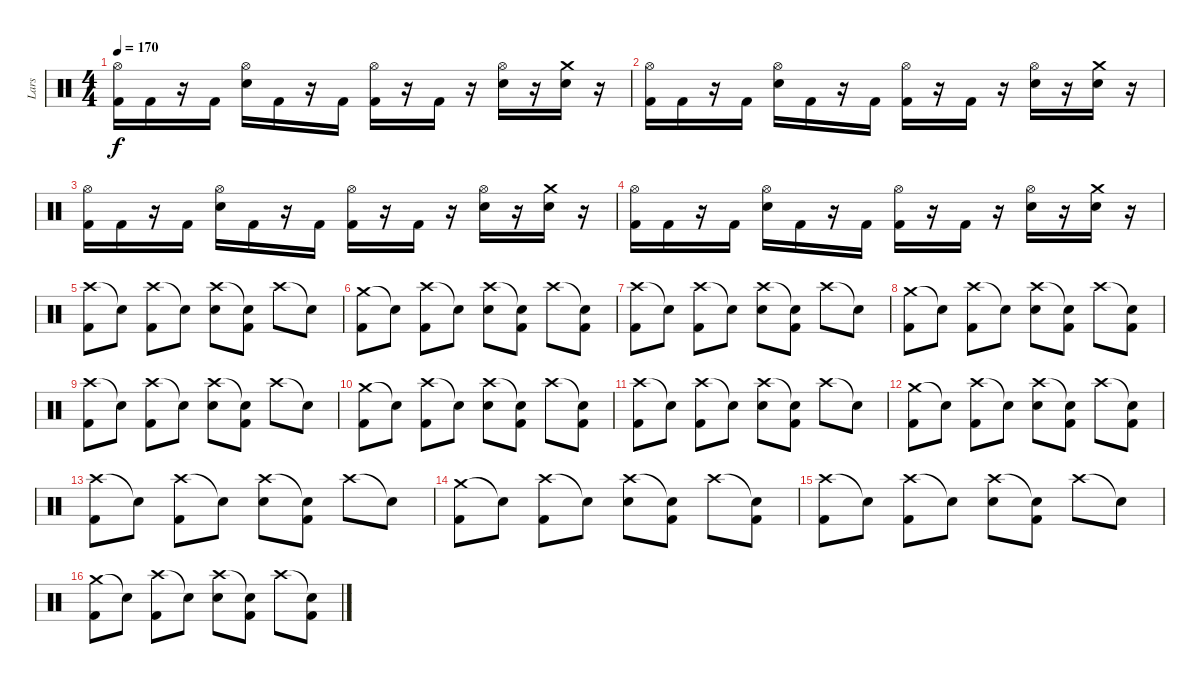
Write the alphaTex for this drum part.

\track ("Lars" "Lars") {instrument percussion}
\staff {score}
\articulation defaults
\ts (4 4)
\tempo 170
\clef neutral
\ks c
("Hi-Hat (open)" "Kick (hit) 2").16{dy f} "Kick (hit) 2".16 r.16 "Kick (hit) 2".16 ("Hi-Hat (open)" "Electric Snare (hit)").16 "Kick (hit) 2".16 r.16 "Kick (hit) 2".16 ("Hi-Hat (open)" "Kick (hit) 2").16 r.16 "Kick (hit) 2".16 r.16 ("Hi-Hat (open)" "Electric Snare (hit)").16 r.16 ("Crash medium (hit)" "Electric Snare (hit)").16 r.16 |
("Hi-Hat (open)" "Kick (hit) 2").16 "Kick (hit) 2".16 r.16 "Kick (hit) 2".16 ("Hi-Hat (open)" "Electric Snare (hit)").16 "Kick (hit) 2".16 r.16 "Kick (hit) 2".16 ("Hi-Hat (open)" "Kick (hit) 2").16 r.16 "Kick (hit) 2".16 r.16 ("Hi-Hat (open)" "Electric Snare (hit)").16 r.16 ("Crash medium (hit)" "Electric Snare (hit)").16 r.16 |
("Hi-Hat (open)" "Kick (hit) 2").16 "Kick (hit) 2".16 r.16 "Kick (hit) 2".16 ("Hi-Hat (open)" "Electric Snare (hit)").16 "Kick (hit) 2".16 r.16 "Kick (hit) 2".16 ("Hi-Hat (open)" "Kick (hit) 2").16 r.16 "Kick (hit) 2".16 r.16 ("Hi-Hat (open)" "Electric Snare (hit)").16 r.16 ("Crash medium (hit)" "Electric Snare (hit)").16 r.16 |
("Hi-Hat (open)" "Kick (hit) 2").16 "Kick (hit) 2".16 r.16 "Kick (hit) 2".16 ("Hi-Hat (open)" "Electric Snare (hit)").16 "Kick (hit) 2".16 r.16 "Kick (hit) 2".16 ("Hi-Hat (open)" "Kick (hit) 2").16 r.16 "Kick (hit) 2".16 r.16 ("Hi-Hat (open)" "Electric Snare (hit)").16 r.16 ("Crash medium (hit)" "Electric Snare (hit)").16 r.16 |
("Crash high (hit)" "Kick (hit) 2").8 "Snare (hit)"{t}.8 ("Crash high (hit)" "Kick (hit) 2").8 "Snare (hit)"{t}.8 ("Crash high (hit)" "Electric Snare (hit)").8 ("Snare (hit)"{t} "Kick (hit) 2").8 "Crash high (hit)".8 "Snare (hit)"{t}.8 |
("Crash medium (hit)" "Kick (hit) 2").8 "Snare (hit)"{t}.8 ("Crash high (hit)" "Kick (hit) 2").8 "Snare (hit)"{t}.8 ("Crash high (hit)" "Electric Snare (hit)").8 ("Snare (hit)"{t} "Kick (hit) 2").8 "Crash high (hit)".8 ("Snare (hit)"{t} "Kick (hit) 2").8 |
("Crash high (hit)" "Kick (hit) 2").8 "Snare (hit)"{t}.8 ("Crash high (hit)" "Kick (hit) 2").8 "Snare (hit)"{t}.8 ("Crash high (hit)" "Electric Snare (hit)").8 ("Snare (hit)"{t} "Kick (hit) 2").8 "Crash high (hit)".8 "Snare (hit)"{t}.8 |
("Crash medium (hit)" "Kick (hit) 2").8 "Snare (hit)"{t}.8 ("Crash high (hit)" "Kick (hit) 2").8 "Snare (hit)"{t}.8 ("Crash high (hit)" "Electric Snare (hit)").8 ("Snare (hit)"{t} "Kick (hit) 2").8 "Crash high (hit)".8 ("Snare (hit)"{t} "Kick (hit) 2").8 |
("Crash high (hit)" "Kick (hit) 2").8 "Snare (hit)"{t}.8 ("Crash high (hit)" "Kick (hit) 2").8 "Snare (hit)"{t}.8 ("Crash high (hit)" "Electric Snare (hit)").8 ("Snare (hit)"{t} "Kick (hit) 2").8 "Crash high (hit)".8 "Snare (hit)"{t}.8 |
("Crash medium (hit)" "Kick (hit) 2").8 "Snare (hit)"{t}.8 ("Crash high (hit)" "Kick (hit) 2").8 "Snare (hit)"{t}.8 ("Crash high (hit)" "Electric Snare (hit)").8 ("Snare (hit)"{t} "Kick (hit) 2").8 "Crash high (hit)".8 ("Snare (hit)"{t} "Kick (hit) 2").8 |
("Crash high (hit)" "Kick (hit) 2").8 "Snare (hit)"{t}.8 ("Crash high (hit)" "Kick (hit) 2").8 "Snare (hit)"{t}.8 ("Crash high (hit)" "Electric Snare (hit)").8 ("Snare (hit)"{t} "Kick (hit) 2").8 "Crash high (hit)".8 "Snare (hit)"{t}.8 |
("Crash medium (hit)" "Kick (hit) 2").8 "Snare (hit)"{t}.8 ("Crash high (hit)" "Kick (hit) 2").8 "Snare (hit)"{t}.8 ("Crash high (hit)" "Electric Snare (hit)").8 ("Snare (hit)"{t} "Kick (hit) 2").8 "Crash high (hit)".8 ("Snare (hit)"{t} "Kick (hit) 2").8 |
("Crash high (hit)" "Kick (hit) 2").8 "Snare (hit)"{t}.8 ("Crash high (hit)" "Kick (hit) 2").8 "Snare (hit)"{t}.8 ("Crash high (hit)" "Electric Snare (hit)").8 ("Snare (hit)"{t} "Kick (hit) 2").8 "Crash high (hit)".8 "Snare (hit)"{t}.8 |
("Crash medium (hit)" "Kick (hit) 2").8 "Snare (hit)"{t}.8 ("Crash high (hit)" "Kick (hit) 2").8 "Snare (hit)"{t}.8 ("Crash high (hit)" "Electric Snare (hit)").8 ("Snare (hit)"{t} "Kick (hit) 2").8 "Crash high (hit)".8 ("Snare (hit)"{t} "Kick (hit) 2").8 |
("Crash high (hit)" "Kick (hit) 2").8 "Snare (hit)"{t}.8 ("Crash high (hit)" "Kick (hit) 2").8 "Snare (hit)"{t}.8 ("Crash high (hit)" "Electric Snare (hit)").8 ("Snare (hit)"{t} "Kick (hit) 2").8 "Crash high (hit)".8 "Snare (hit)"{t}.8 |
("Crash medium (hit)" "Kick (hit) 2").8 "Snare (hit)"{t}.8 ("Crash high (hit)" "Kick (hit) 2").8 "Snare (hit)"{t}.8 ("Crash high (hit)" "Electric Snare (hit)").8 ("Snare (hit)"{t} "Kick (hit) 2").8 "Crash high (hit)".8 ("Snare (hit)"{t} "Kick (hit) 2").8
